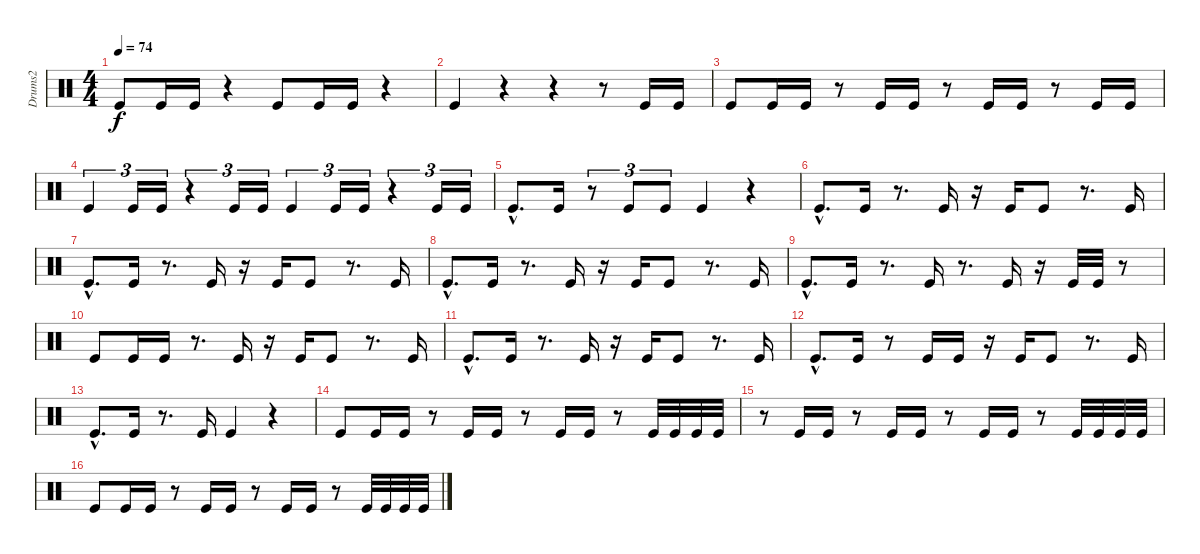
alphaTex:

\track ("Drums2" "Drums2") {instrument percussion}
\staff {score}
\articulation defaults
\ts (4 4)
\tempo 74
\clef neutral
\ks c "Kick (hit)".8{dy f} "Kick (hit)".16 "Kick (hit)".16
r.4 "Kick (hit)".8 "Kick (hit)".16 "Kick (hit)".16 r.4 |
"Kick (hit)".4 r.4 r.4 r.8 "Kick (hit)".16 "Kick (hit)".16 |
"Kick (hit)".8 "Kick (hit)".16 "Kick (hit)".16 r.8 "Kick (hit)".16 "Kick (hit)".16 r.8 "Kick (hit)".16 "Kick (hit)".16 r.8 "Kick (hit)".16 "Kick (hit)".16 |
"Kick (hit)".4{tu (3 2)} "Kick (hit)".16{tu (3 2)} "Kick (hit)".16{tu (3 2)} r.4{tu (3 2)} "Kick (hit)".16{tu (3 2)} "Kick (hit)".16{tu (3 2)} "Kick (hit)".4{tu (3 2)} "Kick (hit)".16{tu (3 2)} "Kick (hit)".16{tu (3 2)} r.4{tu (3 2)} "Kick (hit)".16{tu (3 2)} "Kick (hit)".16{tu (3 2)} |
"Kick (hit)"{hac}.8{d} "Kick (hit)".16 r.8{tu (3 2)} "Kick (hit)".8{tu (3 2)} "Kick (hit)".8{tu (3 2)} "Kick (hit)".4 r.4 |
"Kick (hit)"{hac}.8{d} "Kick (hit)".16 r.8{d} "Kick (hit)".16 r.16 "Kick (hit)".16 "Kick (hit)".8 r.8{d} "Kick (hit)".16 |
"Kick (hit)"{hac}.8{d} "Kick (hit)".16 r.8{d} "Kick (hit)".16 r.16 "Kick (hit)".16 "Kick (hit)".8 r.8{d} "Kick (hit)".16 |
"Kick (hit)"{hac}.8{d} "Kick (hit)".16 r.8{d} "Kick (hit)".16 r.16 "Kick (hit)".16 "Kick (hit)".8 r.8{d} "Kick (hit)".16 |
"Kick (hit)"{hac}.8{d} "Kick (hit)".16 r.8{d} "Kick (hit)".16 r.8{d} "Kick (hit)".16 r.16 "Kick (hit)".32 "Kick (hit)".32 r.8 |
"Kick (hit)".8 "Kick (hit)".16 "Kick (hit)".16 r.8{d} "Kick (hit)".16 r.16 "Kick (hit)".16 "Kick (hit)".8 r.8{d} "Kick (hit)".16 |
"Kick (hit)"{hac}.8{d} "Kick (hit)".16 r.8{d} "Kick (hit)".16 r.16 "Kick (hit)".16 "Kick (hit)".8 r.8{d} "Kick (hit)".16 |
"Kick (hit)"{hac}.8{d} "Kick (hit)".16 r.8 "Kick (hit)".16 "Kick (hit)".16 r.16 "Kick (hit)".16 "Kick (hit)".8 r.8{d} "Kick (hit)".16 |
"Kick (hit)"{hac}.8{d} "Kick (hit)".16 r.8{d} "Kick (hit)".16 "Kick (hit)".4 r.4 |
"Kick (hit)".8 "Kick (hit)".16 "Kick (hit)".16 r.8 "Kick (hit)".16 "Kick (hit)".16 r.8 "Kick (hit)".16 "Kick (hit)".16 r.8 "Kick (hit)".32 "Kick (hit)".32 "Kick (hit)".32 "Kick (hit)".32 |
r.8 "Kick (hit)".16 "Kick (hit)".16 r.8 "Kick (hit)".16 "Kick (hit)".16 r.8 "Kick (hit)".16 "Kick (hit)".16 r.8 "Kick (hit)".32 "Kick (hit)".32 "Kick (hit)".32 "Kick (hit)".32 |
"Kick (hit)".8 "Kick (hit)".16 "Kick (hit)".16 r.8 "Kick (hit)".16 "Kick (hit)".16 r.8 "Kick (hit)".16 "Kick (hit)".16 r.8 "Kick (hit)".32 "Kick (hit)".32 "Kick (hit)".32 "Kick (hit)".32
